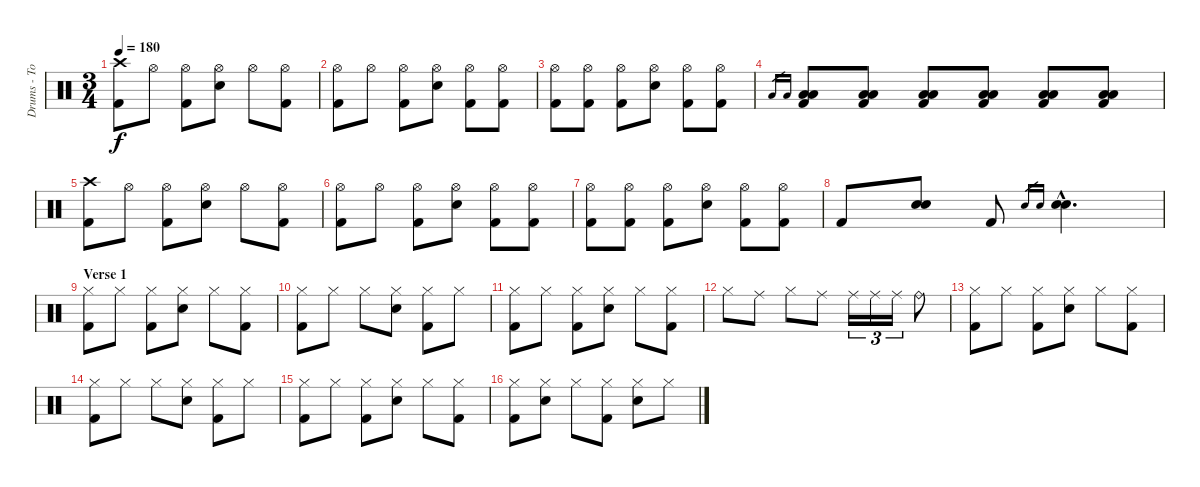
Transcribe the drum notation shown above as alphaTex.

\track ("Drums - Tomas" "Drums - To") {instrument percussion}
\staff {score}
\articulation defaults
\ts (3 4)
\tempo 180
\clef neutral
\ks c
("Crash high (hit)" "Kick (hit) 2").8{dy f} "Hi-Hat (open)".8 ("Hi-Hat (open)" "Kick (hit) 2").8 ("Hi-Hat (open)" "Electric Snare (hit)").8 "Hi-Hat (open)".8 ("Hi-Hat (open)" "Kick (hit) 2").8 |
("Hi-Hat (open)" "Kick (hit) 2").8 "Hi-Hat (open)".8 ("Hi-Hat (open)" "Kick (hit) 2").8 ("Hi-Hat (open)" "Electric Snare (hit)").8 ("Hi-Hat (open)" "Kick (hit) 2").8 ("Hi-Hat (open)" "Kick (hit) 2").8 |
("Hi-Hat (open)" "Kick (hit) 2").8 ("Hi-Hat (open)" "Kick (hit) 2").8 ("Hi-Hat (open)" "Kick (hit) 2").8 ("Hi-Hat (open)" "Electric Snare (hit)").8 ("Hi-Hat (open)" "Kick (hit) 2").8 ("Hi-Hat (open)" "Kick (hit) 2").8 |
"Low Tom (hit)".16{gr} "Low Tom (hit)".16{gr} ("Low Tom (hit)" "Low Tom (hit)" "Kick (hit) 2").8 ("Low Tom (hit)" "Low Tom (hit)" "Kick (hit) 2").8 ("Low Tom (hit)" "Low Tom (hit)" "Kick (hit) 2").8 ("Low Tom (hit)" "Low Tom (hit)" "Kick (hit) 2").8 ("Low Tom (hit)" "Low Tom (hit)" "Kick (hit) 2").8 ("Low Tom (hit)" "Low Tom (hit)" "Kick (hit) 2").8 |
("Crash high (hit)" "Kick (hit) 2").8 "Hi-Hat (open)".8 ("Hi-Hat (open)" "Kick (hit) 2").8 ("Hi-Hat (open)" "Electric Snare (hit)").8 "Hi-Hat (open)".8 ("Hi-Hat (open)" "Kick (hit) 2").8 |
("Hi-Hat (open)" "Kick (hit) 2").8 "Hi-Hat (open)".8 ("Hi-Hat (open)" "Kick (hit) 2").8 ("Hi-Hat (open)" "Electric Snare (hit)").8 ("Hi-Hat (open)" "Kick (hit) 2").8 ("Hi-Hat (open)" "Kick (hit) 2").8 |
("Hi-Hat (open)" "Kick (hit) 2").8 ("Hi-Hat (open)" "Kick (hit) 2").8 ("Hi-Hat (open)" "Kick (hit) 2").8 ("Hi-Hat (open)" "Electric Snare (hit)").8 ("Hi-Hat (open)" "Kick (hit) 2").8 ("Hi-Hat (open)" "Kick (hit) 2").8 |
"Kick (hit) 2".8 ("Electric Snare (hit)" "Electric Snare (hit)").8 "Kick (hit) 2".8 "Electric Snare (hit)".16{gr} "Electric Snare (hit)".16{gr} ("Electric Snare (hit)"{hac} "Electric Snare (hit)"{hac}).4{d} |
\section ("" "Verse 1")
("Hi-Hat (closed)" "Kick (hit) 2").8 "Hi-Hat (closed)".8 ("Hi-Hat (closed)" "Kick (hit) 2").8 ("Hi-Hat (closed)" "Electric Snare (hit)").8 "Hi-Hat (closed)".8 ("Hi-Hat (closed)" "Kick (hit) 2").8 |
("Hi-Hat (closed)" "Kick (hit) 2").8 "Hi-Hat (closed)".8 "Hi-Hat (closed)".8 ("Hi-Hat (closed)" "Electric Snare (hit)").8 ("Hi-Hat (closed)" "Kick (hit) 2").8 "Hi-Hat (closed)".8 |
("Hi-Hat (closed)" "Kick (hit) 2").8 "Hi-Hat (closed)".8 ("Hi-Hat (closed)" "Kick (hit) 2").8 ("Hi-Hat (closed)" "Electric Snare (hit)").8 "Hi-Hat (closed)".8 ("Hi-Hat (closed)" "Kick (hit) 2").8 |
"Hi-Hat (closed)".8 "Ride (middle)".8 "Hi-Hat (closed)".8 "Ride (middle)".8 "Ride (middle)".16{tu (3 2)} "Ride (middle)".16{tu (3 2)} "Ride (middle)".16{tu (3 2)} "Ride (bell)".8 |
("Hi-Hat (closed)" "Kick (hit) 2").8 "Hi-Hat (closed)".8 ("Hi-Hat (closed)" "Kick (hit) 2").8 ("Hi-Hat (closed)" "Electric Snare (hit)").8 "Hi-Hat (closed)".8 ("Hi-Hat (closed)" "Kick (hit) 2").8 |
("Hi-Hat (closed)" "Kick (hit) 2").8 "Hi-Hat (closed)".8 "Hi-Hat (closed)".8 ("Hi-Hat (closed)" "Electric Snare (hit)").8 ("Hi-Hat (closed)" "Kick (hit) 2").8 "Hi-Hat (closed)".8 |
("Hi-Hat (closed)" "Kick (hit) 2").8 "Hi-Hat (closed)".8 ("Hi-Hat (closed)" "Kick (hit) 2").8 ("Hi-Hat (closed)" "Electric Snare (hit)").8 "Hi-Hat (closed)".8 ("Hi-Hat (closed)" "Kick (hit) 2").8 |
("Hi-Hat (closed)" "Kick (hit) 2").8 ("Hi-Hat (closed)" "Electric Snare (hit)").8 "Hi-Hat (closed)".8 ("Hi-Hat (closed)" "Kick (hit) 2").8 ("Hi-Hat (closed)" "Electric Snare (hit)").8 "Hi-Hat (closed)".8
